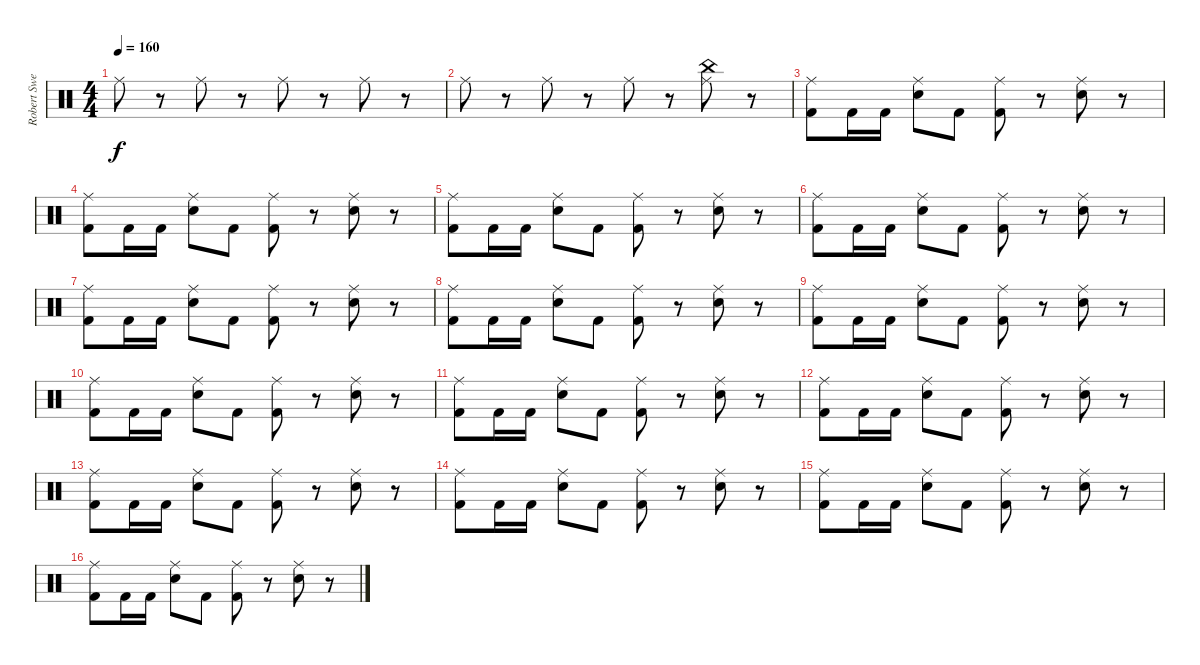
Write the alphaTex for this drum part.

\track ("Robert Sweet" "Robert Swe") {instrument percussion}
\staff {score}
\articulation defaults
\ts (4 4)
\tempo 160
\clef neutral
\ks c "Ride (middle)".8{dy f}
r.8 "Ride (middle)".8 r.8 "Ride (middle)".8 r.8 "Ride (middle)".8 r.8 |
"Ride (middle)".8 r.8 "Ride (middle)".8 r.8 "Ride (middle)".8 r.8 ("Ride (middle)" "China (hit)").8 r.8 |
("Ride (middle)" "Kick (hit) 2").8 "Kick (hit) 2".16 "Kick (hit) 2".16 ("Ride (middle)" "Electric Snare (hit)").8 "Kick (hit) 2".8 ("Ride (middle)" "Kick (hit) 2").8 r.8 ("Ride (middle)" "Electric Snare (hit)").8 r.8 |
("Ride (middle)" "Kick (hit) 2").8 "Kick (hit) 2".16 "Kick (hit) 2".16 ("Ride (middle)" "Electric Snare (hit)").8 "Kick (hit) 2".8 ("Ride (middle)" "Kick (hit) 2").8 r.8 ("Ride (middle)" "Electric Snare (hit)").8 r.8 |
("Ride (middle)" "Kick (hit) 2").8 "Kick (hit) 2".16 "Kick (hit) 2".16 ("Ride (middle)" "Electric Snare (hit)").8 "Kick (hit) 2".8 ("Ride (middle)" "Kick (hit) 2").8 r.8 ("Ride (middle)" "Electric Snare (hit)").8 r.8 |
("Ride (middle)" "Kick (hit) 2").8 "Kick (hit) 2".16 "Kick (hit) 2".16 ("Ride (middle)" "Electric Snare (hit)").8 "Kick (hit) 2".8 ("Ride (middle)" "Kick (hit) 2").8 r.8 ("Ride (middle)" "Electric Snare (hit)").8 r.8 |
("Ride (middle)" "Kick (hit) 2").8 "Kick (hit) 2".16 "Kick (hit) 2".16 ("Ride (middle)" "Electric Snare (hit)").8 "Kick (hit) 2".8 ("Ride (middle)" "Kick (hit) 2").8 r.8 ("Ride (middle)" "Electric Snare (hit)").8 r.8 |
("Ride (middle)" "Kick (hit) 2").8 "Kick (hit) 2".16 "Kick (hit) 2".16 ("Ride (middle)" "Electric Snare (hit)").8 "Kick (hit) 2".8 ("Ride (middle)" "Kick (hit) 2").8 r.8 ("Ride (middle)" "Electric Snare (hit)").8 r.8 |
("Ride (middle)" "Kick (hit) 2").8 "Kick (hit) 2".16 "Kick (hit) 2".16 ("Ride (middle)" "Electric Snare (hit)").8 "Kick (hit) 2".8 ("Ride (middle)" "Kick (hit) 2").8 r.8 ("Ride (middle)" "Electric Snare (hit)").8 r.8 |
("Ride (middle)" "Kick (hit) 2").8 "Kick (hit) 2".16 "Kick (hit) 2".16 ("Ride (middle)" "Electric Snare (hit)").8 "Kick (hit) 2".8 ("Ride (middle)" "Kick (hit) 2").8 r.8 ("Ride (middle)" "Electric Snare (hit)").8 r.8 |
("Ride (middle)" "Kick (hit) 2").8 "Kick (hit) 2".16 "Kick (hit) 2".16 ("Ride (middle)" "Electric Snare (hit)").8 "Kick (hit) 2".8 ("Ride (middle)" "Kick (hit) 2").8 r.8 ("Ride (middle)" "Electric Snare (hit)").8 r.8 |
("Ride (middle)" "Kick (hit) 2").8 "Kick (hit) 2".16 "Kick (hit) 2".16 ("Ride (middle)" "Electric Snare (hit)").8 "Kick (hit) 2".8 ("Ride (middle)" "Kick (hit) 2").8 r.8 ("Ride (middle)" "Electric Snare (hit)").8 r.8 |
("Ride (middle)" "Kick (hit) 2").8 "Kick (hit) 2".16 "Kick (hit) 2".16 ("Ride (middle)" "Electric Snare (hit)").8 "Kick (hit) 2".8 ("Ride (middle)" "Kick (hit) 2").8 r.8 ("Ride (middle)" "Electric Snare (hit)").8 r.8 |
("Ride (middle)" "Kick (hit) 2").8 "Kick (hit) 2".16 "Kick (hit) 2".16 ("Ride (middle)" "Electric Snare (hit)").8 "Kick (hit) 2".8 ("Ride (middle)" "Kick (hit) 2").8 r.8 ("Ride (middle)" "Electric Snare (hit)").8 r.8 |
("Ride (middle)" "Kick (hit) 2").8 "Kick (hit) 2".16 "Kick (hit) 2".16 ("Ride (middle)" "Electric Snare (hit)").8 "Kick (hit) 2".8 ("Ride (middle)" "Kick (hit) 2").8 r.8 ("Ride (middle)" "Electric Snare (hit)").8 r.8 |
("Ride (middle)" "Kick (hit) 2").8 "Kick (hit) 2".16 "Kick (hit) 2".16 ("Ride (middle)" "Electric Snare (hit)").8 "Kick (hit) 2".8 ("Ride (middle)" "Kick (hit) 2").8 r.8 ("Ride (middle)" "Electric Snare (hit)").8 r.8
